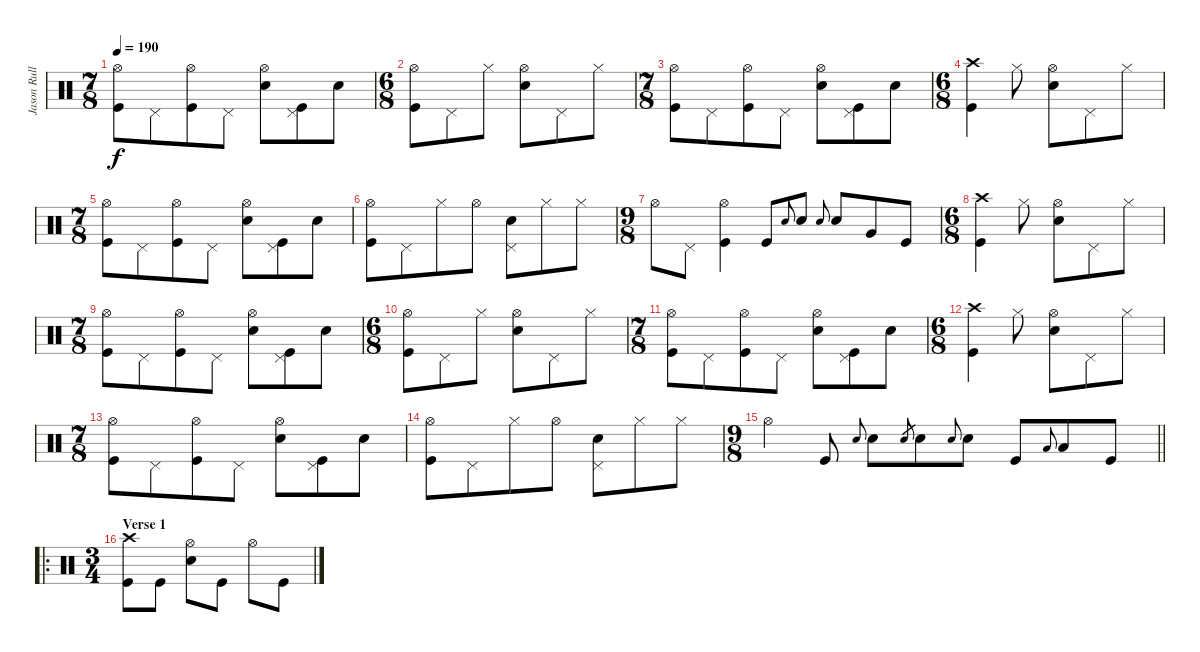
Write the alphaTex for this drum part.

\track ("Jason Rullo - Drums and Percussion" "Jason Rull") {instrument percussion}
\staff {score}
\articulation defaults
\ts (7 8)
\tempo 190
\clef neutral
\ks c
("Hi-Hat (open)" "Kick (hit)").8{dy f} "Pedal Hi-Hat (hit)".8 ("Hi-Hat (open)" "Kick (hit)").8 "Pedal Hi-Hat (hit)".8 ("Snare (hit) 2" "Hi-Hat (open)").8 ("Pedal Hi-Hat (hit)" "Kick (hit)").8 "Snare (hit) 2".8 |
\ts (6 8)
("Kick (hit)" "Hi-Hat (open)").8 "Pedal Hi-Hat (hit)".8 "Hi-Hat (closed)".8 ("Snare (hit) 2" "Hi-Hat (open)").8 "Pedal Hi-Hat (hit)".8 "Hi-Hat (closed)".8 |
\ts (7 8)
("Hi-Hat (open)" "Kick (hit)").8 "Pedal Hi-Hat (hit)".8 ("Hi-Hat (open)" "Kick (hit)").8 "Pedal Hi-Hat (hit)".8 ("Snare (hit) 2" "Hi-Hat (open)").8 ("Pedal Hi-Hat (hit)" "Kick (hit)").8 "Snare (hit) 2".8 |
\ts (6 8)
("Kick (hit)" "Crash high (hit)").4 "Hi-Hat (closed)".8 ("Snare (hit) 2" "Hi-Hat (open)").8 "Pedal Hi-Hat (hit)".8 "Hi-Hat (closed)".8 |
\ts (7 8)
("Hi-Hat (open)" "Kick (hit)").8 "Pedal Hi-Hat (hit)".8 ("Hi-Hat (open)" "Kick (hit)").8 "Pedal Hi-Hat (hit)".8 ("Snare (hit) 2" "Hi-Hat (open)").8 ("Pedal Hi-Hat (hit)" "Kick (hit)").8 "Snare (hit) 2".8 |
("Hi-Hat (open)" "Kick (hit)").8 "Pedal Hi-Hat (hit)".8 "Hi-Hat (closed)".8 "Hi-Hat (open)".8 ("Pedal Hi-Hat (hit)" "Snare (hit) 2").8 "Hi-Hat (closed)".8 "Hi-Hat (closed)".8 |
\ts (9 8)
"Hi-Hat (open)".8 "Pedal Hi-Hat (hit)".8 ("Kick (hit)" "Hi-Hat (open)").4 "Kick (hit)".8 "Snare (hit) 2".8{gr onbeat} "Snare (hit) 2".8 "Snare (hit) 2".8{gr onbeat} "Snare (hit) 2".8 "Very Low Tom (hit)".8 "Kick (hit)".8 |
\ts (6 8)
("Kick (hit)" "Crash high (hit)").4 "Hi-Hat (closed)".8 ("Snare (hit) 2" "Hi-Hat (open)").8 "Pedal Hi-Hat (hit)".8 "Hi-Hat (closed)".8 |
\ts (7 8)
("Hi-Hat (open)" "Kick (hit)").8 "Pedal Hi-Hat (hit)".8 ("Hi-Hat (open)" "Kick (hit)").8 "Pedal Hi-Hat (hit)".8 ("Snare (hit) 2" "Hi-Hat (open)").8 ("Pedal Hi-Hat (hit)" "Kick (hit)").8 "Snare (hit) 2".8 |
\ts (6 8)
("Kick (hit)" "Hi-Hat (open)").8 "Pedal Hi-Hat (hit)".8 "Hi-Hat (closed)".8 ("Snare (hit) 2" "Hi-Hat (open)").8 "Pedal Hi-Hat (hit)".8 "Hi-Hat (closed)".8 |
\ts (7 8)
("Hi-Hat (open)" "Kick (hit)").8 "Pedal Hi-Hat (hit)".8 ("Hi-Hat (open)" "Kick (hit)").8 "Pedal Hi-Hat (hit)".8 ("Snare (hit) 2" "Hi-Hat (open)").8 ("Pedal Hi-Hat (hit)" "Kick (hit)").8 "Snare (hit) 2".8 |
\ts (6 8)
("Kick (hit)" "Crash high (hit)").4 "Hi-Hat (closed)".8 ("Snare (hit) 2" "Hi-Hat (open)").8 "Pedal Hi-Hat (hit)".8 "Hi-Hat (closed)".8 |
\ts (7 8)
("Hi-Hat (open)" "Kick (hit)").8 "Pedal Hi-Hat (hit)".8 ("Hi-Hat (open)" "Kick (hit)").8 "Pedal Hi-Hat (hit)".8 ("Snare (hit) 2" "Hi-Hat (open)").8 ("Pedal Hi-Hat (hit)" "Kick (hit)").8 "Snare (hit) 2".8 |
("Hi-Hat (open)" "Kick (hit)").8 "Pedal Hi-Hat (hit)".8 "Hi-Hat (closed)".8 "Hi-Hat (open)".8 ("Pedal Hi-Hat (hit)" "Snare (hit) 2").8 "Hi-Hat (closed)".8 "Hi-Hat (closed)".8 |
\ts (9 8)
\barLineRight lightlight "Hi-Hat (open)".4 "Kick (hit)".8 "Snare (hit) 2".8{gr onbeat} "Snare (hit) 2".8 "Snare (hit) 2".8{gr} "Snare (hit) 2".8 "Snare (hit) 2".8{gr onbeat} "Snare (hit) 2".8 "Kick (hit)".8 "Low Floor Tom (hit)".8{gr onbeat} "Low Floor Tom (hit)".8 "Kick (hit)".8
|
\ro
\ts (3 4)
\section ("" "Verse 1")
("Kick (hit)" "Crash high (hit)").8 "Kick (hit)".8 ("Snare (hit) 2" "Hi-Hat (open)").8 "Kick (hit)".8 "Hi-Hat (open)".8 "Kick (hit)".8
